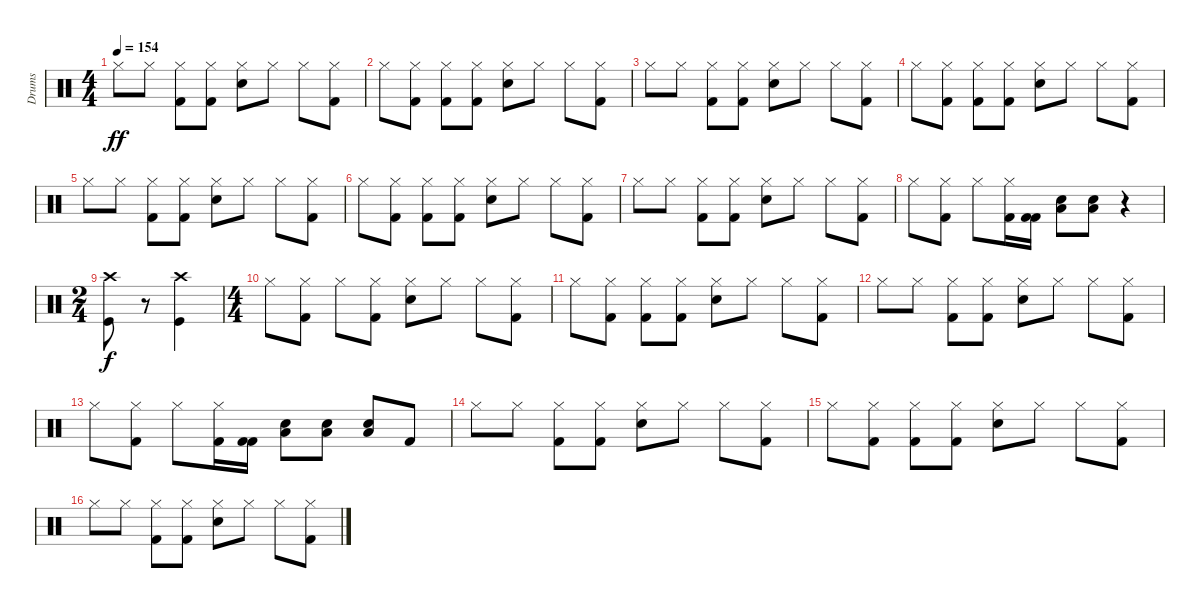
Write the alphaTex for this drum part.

\track ("Drums" "Drums") {instrument percussion}
\staff {score}
\articulation defaults
\ts (4 4)
\tempo 154
\clef neutral
\ks c "Hi-Hat (closed)".8{dy ff} "Hi-Hat (closed)".8
("Kick (hit) 2" "Hi-Hat (closed)").8 ("Kick (hit) 2" "Hi-Hat (closed)").8 ("Snare (hit) 2" "Hi-Hat (closed)").8 "Hi-Hat (closed)".8 "Hi-Hat (closed)".8 ("Kick (hit) 2" "Hi-Hat (closed)").8 |
"Hi-Hat (closed)".8 ("Kick (hit) 2" "Hi-Hat (closed)").8 ("Kick (hit) 2" "Hi-Hat (closed)").8 ("Kick (hit) 2" "Hi-Hat (closed)").8 ("Snare (hit) 2" "Hi-Hat (closed)").8 "Hi-Hat (closed)".8 "Hi-Hat (closed)".8 ("Kick (hit) 2" "Hi-Hat (closed)").8 |
"Hi-Hat (closed)".8 "Hi-Hat (closed)".8 ("Kick (hit) 2" "Hi-Hat (closed)").8 ("Kick (hit) 2" "Hi-Hat (closed)").8 ("Snare (hit) 2" "Hi-Hat (closed)").8 "Hi-Hat (closed)".8 "Hi-Hat (closed)".8 ("Kick (hit) 2" "Hi-Hat (closed)").8 |
"Hi-Hat (closed)".8 ("Kick (hit) 2" "Hi-Hat (closed)").8 ("Kick (hit) 2" "Hi-Hat (closed)").8 ("Kick (hit) 2" "Hi-Hat (closed)").8 ("Snare (hit) 2" "Hi-Hat (closed)").8 "Hi-Hat (closed)".8 "Hi-Hat (closed)".8 ("Kick (hit) 2" "Hi-Hat (closed)").8 |
"Hi-Hat (closed)".8 "Hi-Hat (closed)".8 ("Kick (hit) 2" "Hi-Hat (closed)").8 ("Kick (hit) 2" "Hi-Hat (closed)").8 ("Snare (hit) 2" "Hi-Hat (closed)").8 "Hi-Hat (closed)".8 "Hi-Hat (closed)".8 ("Kick (hit) 2" "Hi-Hat (closed)").8 |
"Hi-Hat (closed)".8 ("Kick (hit) 2" "Hi-Hat (closed)").8 ("Kick (hit) 2" "Hi-Hat (closed)").8 ("Kick (hit) 2" "Hi-Hat (closed)").8 ("Snare (hit) 2" "Hi-Hat (closed)").8 "Hi-Hat (closed)".8 "Hi-Hat (closed)".8 ("Kick (hit) 2" "Hi-Hat (closed)").8 |
"Hi-Hat (closed)".8 "Hi-Hat (closed)".8 ("Kick (hit) 2" "Hi-Hat (closed)").8 ("Kick (hit) 2" "Hi-Hat (closed)").8 ("Snare (hit) 2" "Hi-Hat (closed)").8 "Hi-Hat (closed)".8 "Hi-Hat (closed)".8 ("Kick (hit) 2" "Hi-Hat (closed)").8 |
"Hi-Hat (closed)".8 ("Kick (hit) 2" "Hi-Hat (closed)").8 "Hi-Hat (closed)".8 ("Kick (hit) 2" "Hi-Hat (closed)").16 ("Kick (hit) 2" "Kick (hit) 2").16 ("Snare (hit) 2" "Low Floor Tom (hit)").8 ("Snare (hit) 2" "Low Floor Tom (hit)").8 r.4 |
\ts (2 4)
("Kick (hit)" "Crash high (hit)").8{dy f} r.8 ("Kick (hit)" "Crash high (hit)").4 |
\ts (4 4)
"Hi-Hat (closed)".8 ("Kick (hit) 2" "Hi-Hat (closed)").8 "Hi-Hat (closed)".8 ("Kick (hit) 2" "Hi-Hat (closed)").8 ("Snare (hit) 2" "Hi-Hat (closed)").8 "Hi-Hat (closed)".8 "Hi-Hat (closed)".8 ("Kick (hit) 2" "Hi-Hat (closed)").8 |
"Hi-Hat (closed)".8 ("Kick (hit) 2" "Hi-Hat (closed)").8 ("Kick (hit) 2" "Hi-Hat (closed)").8 ("Kick (hit) 2" "Hi-Hat (closed)").8 ("Snare (hit) 2" "Hi-Hat (closed)").8 "Hi-Hat (closed)".8 "Hi-Hat (closed)".8 ("Kick (hit) 2" "Hi-Hat (closed)").8 |
"Hi-Hat (closed)".8 "Hi-Hat (closed)".8 ("Kick (hit) 2" "Hi-Hat (closed)").8 ("Kick (hit) 2" "Hi-Hat (closed)").8 ("Snare (hit) 2" "Hi-Hat (closed)").8 "Hi-Hat (closed)".8 "Hi-Hat (closed)".8 ("Kick (hit) 2" "Hi-Hat (closed)").8 |
"Hi-Hat (closed)".8 ("Kick (hit) 2" "Hi-Hat (closed)").8 "Hi-Hat (closed)".8 ("Kick (hit) 2" "Hi-Hat (closed)").16 ("Kick (hit) 2" "Kick (hit) 2").16 ("Snare (hit) 2" "Low Floor Tom (hit)").8 ("Snare (hit) 2" "Low Floor Tom (hit)").8 ("Snare (hit) 2" "Low Floor Tom (hit)").8 "Kick (hit) 2".8 |
"Hi-Hat (closed)".8 "Hi-Hat (closed)".8 ("Kick (hit) 2" "Hi-Hat (closed)").8 ("Kick (hit) 2" "Hi-Hat (closed)").8 ("Snare (hit) 2" "Hi-Hat (closed)").8 "Hi-Hat (closed)".8 "Hi-Hat (closed)".8 ("Kick (hit) 2" "Hi-Hat (closed)").8 |
"Hi-Hat (closed)".8 ("Kick (hit) 2" "Hi-Hat (closed)").8 ("Kick (hit) 2" "Hi-Hat (closed)").8 ("Kick (hit) 2" "Hi-Hat (closed)").8 ("Snare (hit) 2" "Hi-Hat (closed)").8 "Hi-Hat (closed)".8 "Hi-Hat (closed)".8 ("Kick (hit) 2" "Hi-Hat (closed)").8 |
"Hi-Hat (closed)".8 "Hi-Hat (closed)".8 ("Kick (hit) 2" "Hi-Hat (closed)").8 ("Kick (hit) 2" "Hi-Hat (closed)").8 ("Snare (hit) 2" "Hi-Hat (closed)").8 "Hi-Hat (closed)".8 "Hi-Hat (closed)".8 ("Kick (hit) 2" "Hi-Hat (closed)").8
